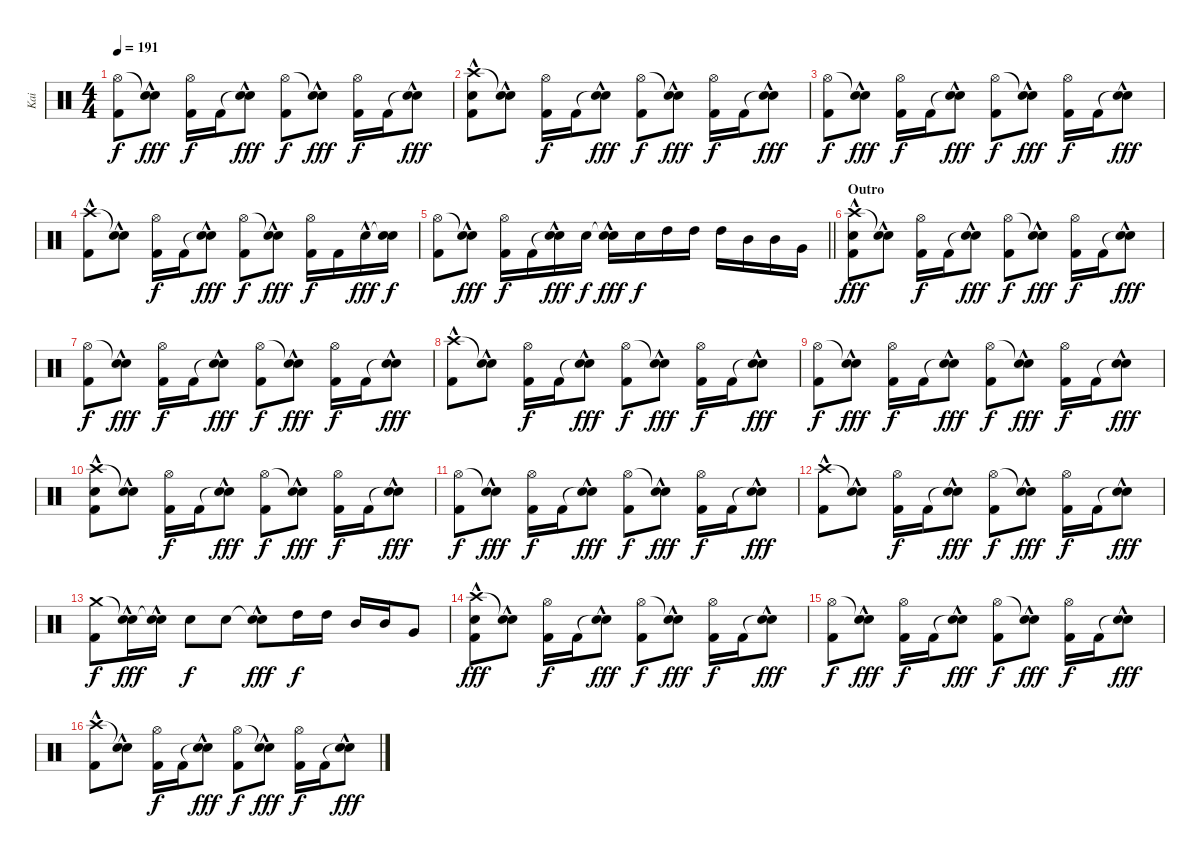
\track ("Kai" "Kai") {instrument percussion}
\staff {score}
\articulation defaults
\ts (4 4)
\tempo 191
\clef neutral
\ks c
("Hi-Hat (open)" "Kick (hit) 2").8{dy f} ("Snare (hit)"{t} "Snare (hit) 2"{hac}).8{dy fff} ("Hi-Hat (open)" "Kick (hit) 2").16{dy f} "Kick (hit) 2".16 ("Snare (hit)"{t} "Snare (hit) 2"{hac}).8{dy fff} ("Hi-Hat (open)" "Kick (hit) 2").8{dy f} ("Snare (hit)"{t} "Snare (hit) 2"{hac}).8{dy fff} ("Hi-Hat (open)" "Kick (hit) 2").16{dy f} "Kick (hit) 2".16 ("Snare (hit)"{t} "Snare (hit) 2"{hac}).8{dy fff} |
("Crash high (hit)"{hac} "Snare (hit) 2" "Kick (hit) 2").8 ("Snare (hit)"{t} "Snare (hit) 2"{hac}).8 ("Hi-Hat (open)" "Kick (hit) 2").16{dy f} "Kick (hit) 2".16 ("Snare (hit)"{t} "Snare (hit) 2"{hac}).8{dy fff} ("Hi-Hat (open)" "Kick (hit) 2").8{dy f} ("Snare (hit)"{t} "Snare (hit) 2"{hac}).8{dy fff} ("Hi-Hat (open)" "Kick (hit) 2").16{dy f} "Kick (hit) 2".16 ("Snare (hit)"{t} "Snare (hit) 2"{hac}).8{dy fff} |
("Hi-Hat (open)" "Kick (hit) 2").8{dy f} ("Snare (hit)"{t} "Snare (hit) 2"{hac}).8{dy fff} ("Hi-Hat (open)" "Kick (hit) 2").16{dy f} "Kick (hit) 2".16 ("Snare (hit)"{t} "Snare (hit) 2"{hac}).8{dy fff} ("Hi-Hat (open)" "Kick (hit) 2").8{dy f} ("Snare (hit)"{t} "Snare (hit) 2"{hac}).8{dy fff} ("Hi-Hat (open)" "Kick (hit) 2").16{dy f} "Kick (hit) 2".16 ("Snare (hit)"{t} "Snare (hit) 2"{hac}).8{dy fff} |
("Crash high (hit)"{hac} "Kick (hit) 2").8 ("Snare (hit)"{t} "Snare (hit) 2"{hac}).8 ("Hi-Hat (open)" "Kick (hit) 2").16{dy f} "Kick (hit) 2".16 ("Snare (hit)"{t} "Snare (hit) 2"{hac}).8{dy fff} ("Hi-Hat (open)" "Kick (hit) 2").8{dy f} ("Snare (hit)"{t} "Snare (hit) 2"{hac}).8{dy fff} ("Hi-Hat (open)" "Kick (hit) 2").16{dy f} "Kick (hit) 2".16 "Snare (hit) 2"{hac}.16{dy fff} ("Snare (hit)"{t} "Snare (hit) 2").16{dy f} |
\barLineRight lightlight
("Hi-Hat (open)" "Kick (hit) 2").8 ("Snare (hit)"{t} "Snare (hit) 2"{hac}).8{dy fff} ("Hi-Hat (open)" "Kick (hit) 2").16{dy f} "Kick (hit) 2".16 ("Snare (hit)"{t} "Snare (hit) 2"{hac}).16{dy fff} "Snare (hit) 2".16{dy f} ("Snare (hit)"{t} "Snare (hit) 2"{hac}).16{dy fff} "Snare (hit) 2".16{dy f} "High Tom (hit)".16 "High Tom (hit)".16 "High Tom (hit)".16 "Mid Tom (hit)".16 "Mid Tom (hit)".16 "Very Low Tom (hit)".16 |
\section ("" "Outro")
("Crash high (hit)"{hac} "Snare (hit) 2" "Kick (hit) 2").8{dy fff} ("Snare (hit)"{t} "Snare (hit) 2"{hac}).8 ("Hi-Hat (open)" "Kick (hit) 2").16{dy f} "Kick (hit) 2".16 ("Snare (hit)"{t} "Snare (hit) 2"{hac}).8{dy fff} ("Hi-Hat (open)" "Kick (hit) 2").8{dy f} ("Snare (hit)"{t} "Snare (hit) 2"{hac}).8{dy fff} ("Hi-Hat (open)" "Kick (hit) 2").16{dy f} "Kick (hit) 2".16 ("Snare (hit)"{t} "Snare (hit) 2"{hac}).8{dy fff} |
("Hi-Hat (open)" "Kick (hit) 2").8{dy f} ("Snare (hit)"{t} "Snare (hit) 2"{hac}).8{dy fff} ("Hi-Hat (open)" "Kick (hit) 2").16{dy f} "Kick (hit) 2".16 ("Snare (hit)"{t} "Snare (hit) 2"{hac}).8{dy fff} ("Hi-Hat (open)" "Kick (hit) 2").8{dy f} ("Snare (hit)"{t} "Snare (hit) 2"{hac}).8{dy fff} ("Hi-Hat (open)" "Kick (hit) 2").16{dy f} "Kick (hit) 2".16 ("Snare (hit)"{t} "Snare (hit) 2"{hac}).8{dy fff} |
("Crash high (hit)"{hac} "Kick (hit) 2").8 ("Snare (hit)"{t} "Snare (hit) 2"{hac}).8 ("Hi-Hat (open)" "Kick (hit) 2").16{dy f} "Kick (hit) 2".16 ("Snare (hit)"{t} "Snare (hit) 2"{hac}).8{dy fff} ("Hi-Hat (open)" "Kick (hit) 2").8{dy f} ("Snare (hit)"{t} "Snare (hit) 2"{hac}).8{dy fff} ("Hi-Hat (open)" "Kick (hit) 2").16{dy f} "Kick (hit) 2".16 ("Snare (hit)"{t} "Snare (hit) 2"{hac}).8{dy fff} |
("Hi-Hat (open)" "Kick (hit) 2").8{dy f} ("Snare (hit)"{t} "Snare (hit) 2"{hac}).8{dy fff} ("Hi-Hat (open)" "Kick (hit) 2").16{dy f} "Kick (hit) 2".16 ("Snare (hit)"{t} "Snare (hit) 2"{hac}).8{dy fff} ("Hi-Hat (open)" "Kick (hit) 2").8{dy f} ("Snare (hit)"{t} "Snare (hit) 2"{hac}).8{dy fff} ("Hi-Hat (open)" "Kick (hit) 2").16{dy f} "Kick (hit) 2".16 ("Snare (hit)"{t} "Snare (hit) 2"{hac}).8{dy fff} |
("Crash high (hit)"{hac} "Snare (hit) 2" "Kick (hit) 2").8 ("Snare (hit)"{t} "Snare (hit) 2"{hac}).8 ("Hi-Hat (open)" "Kick (hit) 2").16{dy f} "Kick (hit) 2".16 ("Snare (hit)"{t} "Snare (hit) 2"{hac}).8{dy fff} ("Hi-Hat (open)" "Kick (hit) 2").8{dy f} ("Snare (hit)"{t} "Snare (hit) 2"{hac}).8{dy fff} ("Hi-Hat (open)" "Kick (hit) 2").16{dy f} "Kick (hit) 2".16 ("Snare (hit)"{t} "Snare (hit) 2"{hac}).8{dy fff} |
("Hi-Hat (open)" "Kick (hit) 2").8{dy f} ("Snare (hit)"{t} "Snare (hit) 2"{hac}).8{dy fff} ("Hi-Hat (open)" "Kick (hit) 2").16{dy f} "Kick (hit) 2".16 ("Snare (hit)"{t} "Snare (hit) 2"{hac}).8{dy fff} ("Hi-Hat (open)" "Kick (hit) 2").8{dy f} ("Snare (hit)"{t} "Snare (hit) 2"{hac}).8{dy fff} ("Hi-Hat (open)" "Kick (hit) 2").16{dy f} "Kick (hit) 2".16 ("Snare (hit)"{t} "Snare (hit) 2"{hac}).8{dy fff} |
("Crash high (hit)"{hac} "Kick (hit) 2").8 ("Snare (hit)"{t} "Snare (hit) 2"{hac}).8 ("Hi-Hat (open)" "Kick (hit) 2").16{dy f} "Kick (hit) 2".16 ("Snare (hit)"{t} "Snare (hit) 2"{hac}).8{dy fff} ("Hi-Hat (open)" "Kick (hit) 2").8{dy f} ("Snare (hit)"{t} "Snare (hit) 2"{hac}).8{dy fff} ("Hi-Hat (open)" "Kick (hit) 2").16{dy f} "Kick (hit) 2".16 ("Snare (hit)"{t} "Snare (hit) 2"{hac}).8{dy fff} |
("Crash medium (hit)" "Kick (hit) 2").8{dy f} ("Snare (hit)"{t} "Snare (hit) 2"{hac}).16{dy fff} ("Snare (hit)"{t} "Snare (hit) 2"{hac}).16 "Snare (hit) 2".8{dy f} "Snare (hit) 2".8 ("Snare (hit)"{t} "Snare (hit) 2"{hac}).8{dy fff} "High Tom (hit)".16{dy f} "High Tom (hit)".16 "Mid Tom (hit)".16 "Mid Tom (hit)".16 "Very Low Tom (hit)".8 |
("Crash high (hit)" "Snare (hit) 2"{hac} "Kick (hit) 2").8{dy fff} ("Snare (hit)"{t} "Snare (hit) 2"{hac}).8 ("Hi-Hat (open)" "Kick (hit) 2").16{dy f} "Kick (hit) 2".16 ("Snare (hit)"{t} "Snare (hit) 2"{hac}).8{dy fff} ("Hi-Hat (open)" "Kick (hit) 2").8{dy f} ("Snare (hit)"{t} "Snare (hit) 2"{hac}).8{dy fff} ("Hi-Hat (open)" "Kick (hit) 2").16{dy f} "Kick (hit) 2".16 ("Snare (hit)"{t} "Snare (hit) 2"{hac}).8{dy fff} |
("Hi-Hat (open)" "Kick (hit) 2").8{dy f} ("Snare (hit)"{t} "Snare (hit) 2"{hac}).8{dy fff} ("Hi-Hat (open)" "Kick (hit) 2").16{dy f} "Kick (hit) 2".16 ("Snare (hit)"{t} "Snare (hit) 2"{hac}).8{dy fff} ("Hi-Hat (open)" "Kick (hit) 2").8{dy f} ("Snare (hit)"{t} "Snare (hit) 2"{hac}).8{dy fff} ("Hi-Hat (open)" "Kick (hit) 2").16{dy f} "Kick (hit) 2".16 ("Snare (hit)"{t} "Snare (hit) 2"{hac}).8{dy fff} |
("Crash high (hit)"{hac} "Kick (hit) 2").8 ("Snare (hit)"{t} "Snare (hit) 2"{hac}).8 ("Hi-Hat (open)" "Kick (hit) 2").16{dy f} "Kick (hit) 2".16 ("Snare (hit)"{t} "Snare (hit) 2"{hac}).8{dy fff} ("Hi-Hat (open)" "Kick (hit) 2").8{dy f} ("Snare (hit)"{t} "Snare (hit) 2"{hac}).8{dy fff} ("Hi-Hat (open)" "Kick (hit) 2").16{dy f} "Kick (hit) 2".16 ("Snare (hit)"{t} "Snare (hit) 2"{hac}).8{dy fff}
